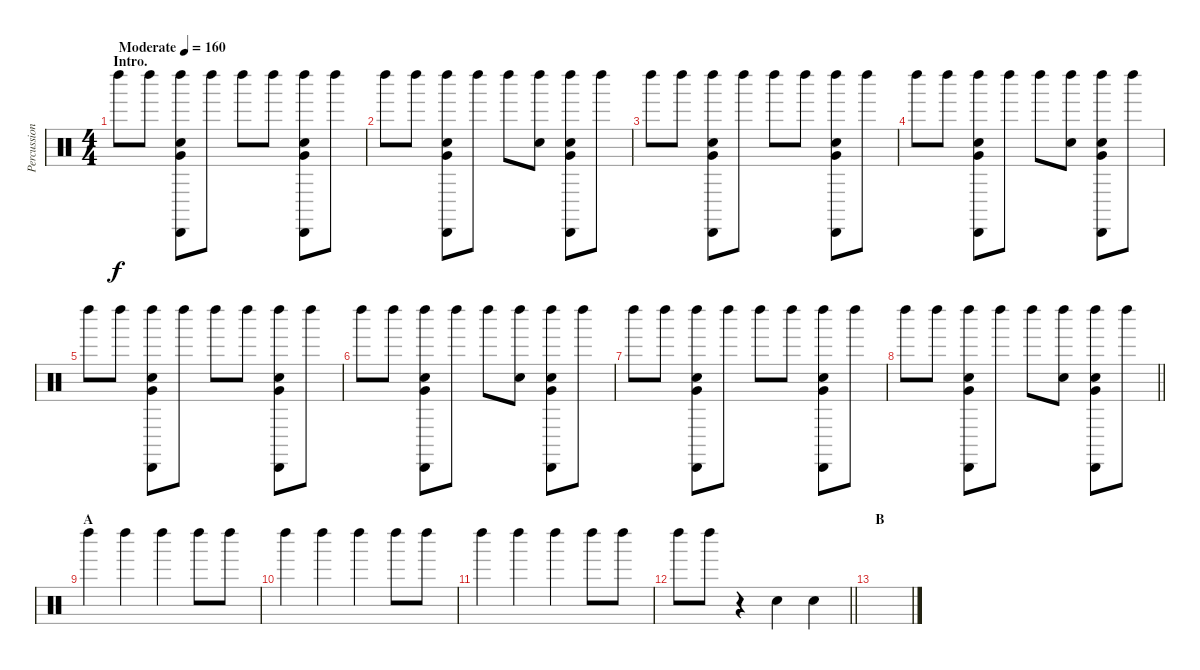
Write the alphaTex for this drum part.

\track ("Percussion A (Tainaka Ritsu)" "Percussion") {instrument percussion}
\staff {score}
\articulation defaults
\ts (4 4)
\section ("" "Intro.")
\tempo (160 "Moderate")
\clef neutral
\ks c "Left Maraca (hit)".8{dy f} "Left Maraca (hit)".8
("Left Maraca (hit)" "Cabasa (hit)" "Very Low Tom (hit)" "Hand Clap (hit)").8 "Left Maraca (hit)".8 "Left Maraca (hit)".8 "Left Maraca (hit)".8 ("Left Maraca (hit)" "Cabasa (hit)" "Very Low Tom (hit)" "Hand Clap (hit)").8 "Left Maraca (hit)".8 |
"Left Maraca (hit)".8 "Left Maraca (hit)".8 ("Left Maraca (hit)" "Cabasa (hit)" "Very Low Tom (hit)" "Hand Clap (hit)").8 "Left Maraca (hit)".8 "Left Maraca (hit)".8 ("Left Maraca (hit)" "Hand Clap (hit)").8 ("Left Maraca (hit)" "Cabasa (hit)" "Very Low Tom (hit)" "Hand Clap (hit)").8 "Left Maraca (hit)".8 |
"Left Maraca (hit)".8 "Left Maraca (hit)".8 ("Left Maraca (hit)" "Cabasa (hit)" "Very Low Tom (hit)" "Hand Clap (hit)").8 "Left Maraca (hit)".8 "Left Maraca (hit)".8 "Left Maraca (hit)".8 ("Left Maraca (hit)" "Cabasa (hit)" "Very Low Tom (hit)" "Hand Clap (hit)").8 "Left Maraca (hit)".8 |
"Left Maraca (hit)".8 "Left Maraca (hit)".8 ("Left Maraca (hit)" "Cabasa (hit)" "Very Low Tom (hit)" "Hand Clap (hit)").8 "Left Maraca (hit)".8 "Left Maraca (hit)".8 ("Left Maraca (hit)" "Hand Clap (hit)").8 ("Left Maraca (hit)" "Cabasa (hit)" "Very Low Tom (hit)" "Hand Clap (hit)").8 "Left Maraca (hit)".8 |
"Left Maraca (hit)".8 "Left Maraca (hit)".8 ("Left Maraca (hit)" "Cabasa (hit)" "Very Low Tom (hit)" "Hand Clap (hit)").8 "Left Maraca (hit)".8 "Left Maraca (hit)".8 "Left Maraca (hit)".8 ("Left Maraca (hit)" "Cabasa (hit)" "Very Low Tom (hit)" "Hand Clap (hit)").8 "Left Maraca (hit)".8 |
"Left Maraca (hit)".8 "Left Maraca (hit)".8 ("Left Maraca (hit)" "Cabasa (hit)" "Very Low Tom (hit)" "Hand Clap (hit)").8 "Left Maraca (hit)".8 "Left Maraca (hit)".8 ("Left Maraca (hit)" "Hand Clap (hit)").8 ("Left Maraca (hit)" "Cabasa (hit)" "Very Low Tom (hit)" "Hand Clap (hit)").8 "Left Maraca (hit)".8 |
"Left Maraca (hit)".8 "Left Maraca (hit)".8 ("Left Maraca (hit)" "Cabasa (hit)" "Very Low Tom (hit)" "Hand Clap (hit)").8 "Left Maraca (hit)".8 "Left Maraca (hit)".8 "Left Maraca (hit)".8 ("Left Maraca (hit)" "Cabasa (hit)" "Very Low Tom (hit)" "Hand Clap (hit)").8 "Left Maraca (hit)".8 |
\barLineRight lightlight "Left Maraca (hit)".8 "Left Maraca (hit)".8
("Left Maraca (hit)" "Cabasa (hit)" "Very Low Tom (hit)" "Hand Clap (hit)").8 "Left Maraca (hit)".8 "Left Maraca (hit)".8 ("Left Maraca (hit)" "Hand Clap (hit)").8 ("Left Maraca (hit)" "Cabasa (hit)" "Very Low Tom (hit)" "Hand Clap (hit)").8 "Left Maraca (hit)".8 |
\section ("" "A")
"Left Maraca (hit)".4 "Left Maraca (hit)".4 "Left Maraca (hit)".4 "Left Maraca (hit)".8 "Left Maraca (hit)".8 |
"Left Maraca (hit)".4 "Left Maraca (hit)".4 "Left Maraca (hit)".4 "Left Maraca (hit)".8 "Left Maraca (hit)".8 |
"Left Maraca (hit)".4 "Left Maraca (hit)".4 "Left Maraca (hit)".4 "Left Maraca (hit)".8 "Left Maraca (hit)".8 |
\barLineRight lightlight "Left Maraca (hit)".8 "Left Maraca (hit)".8
r.4 "Hand Clap (hit)".4 "Hand Clap (hit)".4 |
\section ("" "B")
